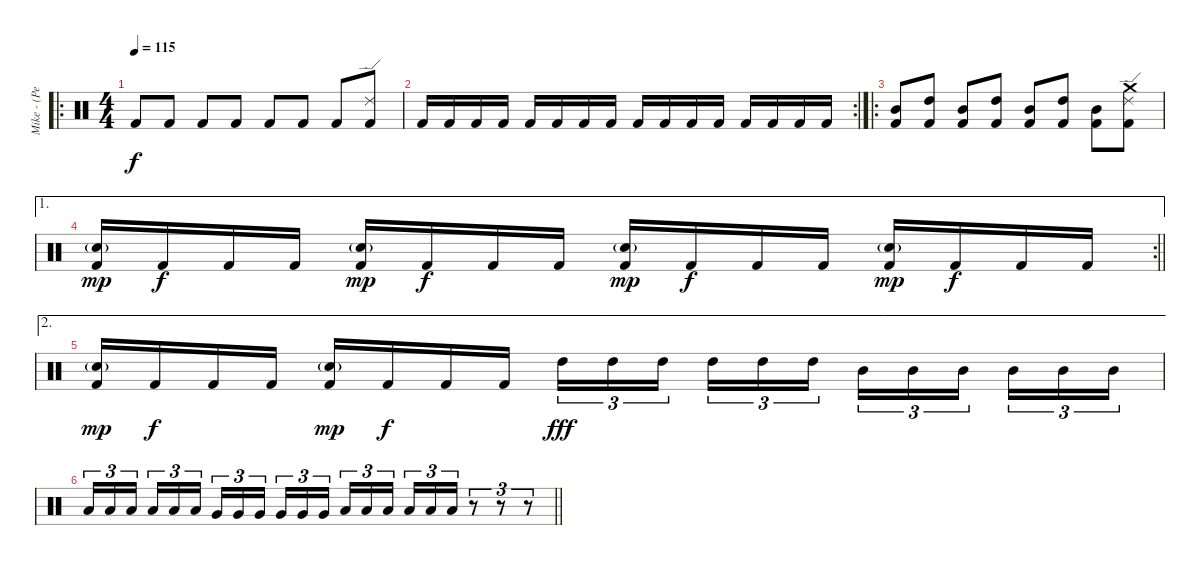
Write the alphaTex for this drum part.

\track ("Mike - (Percussion)" "Mike - (Pe") {instrument percussion}
\staff {score}
\articulation defaults
\ro
\ts (4 4)
\tempo 115
\clef neutral
\ks c "Kick (hit) 2".8{dy f} "Kick (hit) 2".8 "Kick (hit) 2".8 "Kick (hit) 2".8 "Kick (hit) 2".8 "Kick (hit) 2".8 "Kick (hit) 2".8
("Ride (edge) 2" "Kick (hit) 2").8 |
\rc 2 "Kick (hit) 2".16 "Kick (hit) 2".16 "Kick (hit) 2".16 "Kick (hit) 2".16 "Kick (hit) 2".16 "Kick (hit) 2".16 "Kick (hit) 2".16 "Kick (hit) 2".16 "Kick (hit) 2".16 "Kick (hit) 2".16 "Kick (hit) 2".16 "Kick (hit) 2".16 "Kick (hit) 2".16 "Kick (hit) 2".16 "Kick (hit) 2".16 "Kick (hit) 2".16
|
\ro
("Mid Tom (hit)" "Kick (hit) 2").8 ("High Tom (hit)" "Kick (hit) 2").8 ("Mid Tom (hit)" "Kick (hit) 2").8 ("High Tom (hit)" "Kick (hit) 2").8 ("Mid Tom (hit)" "Kick (hit) 2").8 ("High Tom (hit)" "Kick (hit) 2").8 ("Mid Tom (hit)" "Kick (hit) 2").8 ("Ride (edge) 2" "Crash medium (hit)" "Kick (hit) 2").8 |
\ae 1
\rc 2
\barLineRight lightlight
("Electric Snare (hit)"{g} "Kick (hit) 2").16{dy mp} "Kick (hit) 2".16{dy f} "Kick (hit) 2".16 "Kick (hit) 2".16 ("Electric Snare (hit)"{g} "Kick (hit) 2").16{dy mp} "Kick (hit) 2".16{dy f} "Kick (hit) 2".16 "Kick (hit) 2".16 ("Electric Snare (hit)"{g} "Kick (hit) 2").16{dy mp} "Kick (hit) 2".16{dy f} "Kick (hit) 2".16 "Kick (hit) 2".16 ("Electric Snare (hit)"{g} "Kick (hit) 2").16{dy mp} "Kick (hit) 2".16{dy f} "Kick (hit) 2".16 "Kick (hit) 2".16 |
\ae 2
("Electric Snare (hit)"{g} "Kick (hit) 2").16{dy mp} "Kick (hit) 2".16{dy f} "Kick (hit) 2".16 "Kick (hit) 2".16 ("Electric Snare (hit)"{g} "Kick (hit) 2").16{dy mp} "Kick (hit) 2".16{dy f} "Kick (hit) 2".16 "Kick (hit) 2".16 "High Tom (hit)".16{tu (3 2) dy fff} "High Tom (hit)".16{tu (3 2)} "High Tom (hit)".16{tu (3 2)} "High Tom (hit)".16{tu (3 2)} "High Tom (hit)".16{tu (3 2)} "High Tom (hit)".16{tu (3 2)} "Mid Tom (hit)".16{tu (3 2)} "Mid Tom (hit)".16{tu (3 2)} "Mid Tom (hit)".16{tu (3 2)} "Mid Tom (hit)".16{tu (3 2)} "Mid Tom (hit)".16{tu (3 2)} "Mid Tom (hit)".16{tu (3 2)} |
\barLineRight lightlight "Low Tom (hit)".16{tu (3 2)} "Low Tom (hit)".16{tu (3 2)} "Low Tom (hit)".16{tu (3 2)} "Low Tom (hit)".16{tu (3 2)} "Low Tom (hit)".16{tu (3 2)} "Low Tom (hit)".16{tu (3 2)} "Very Low Tom (hit)".16{tu (3 2)} "Very Low Tom (hit)".16{tu (3 2)} "Very Low Tom (hit)".16{tu (3 2)} "Very Low Tom (hit)".16{tu (3 2)} "Very Low Tom (hit)".16{tu (3 2)} "Very Low Tom (hit)".16{tu (3 2)} "Low Floor Tom (hit)".16{tu (3 2)} "Low Floor Tom (hit)".16{tu (3 2)} "Low Floor Tom (hit)".16{tu (3 2)} "Low Floor Tom (hit)".16{tu (3 2)} "Low Floor Tom (hit)".16{tu (3 2)} "Low Floor Tom (hit)".16{tu (3 2)}
r.8{tu (3 2)} r.8{tu (3 2)} r.8{tu (3 2)}
